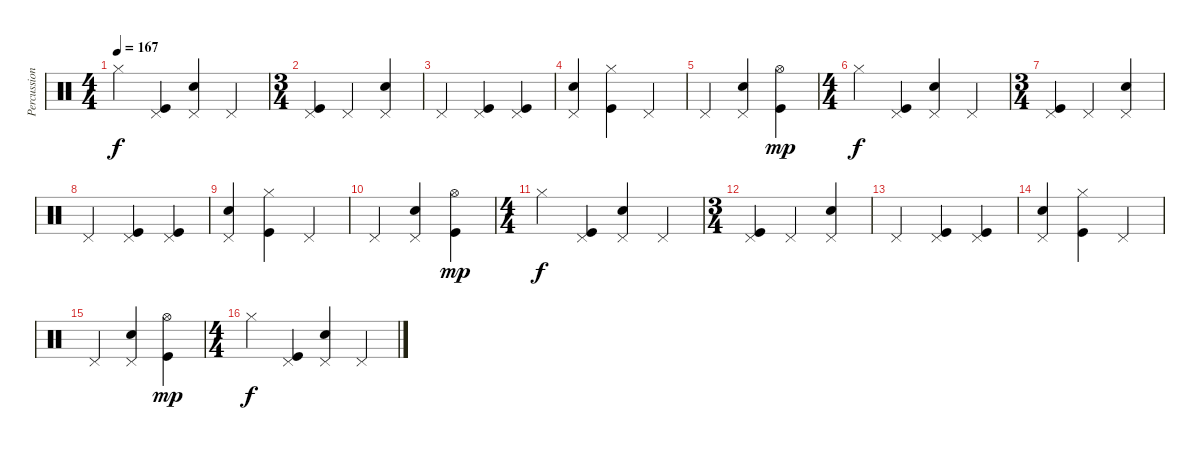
\track ("Percussion" "Percussion") {instrument percussion}
\staff {score}
\articulation defaults
\ts (4 4)
\tempo 167
\clef neutral
\ks c "Hi-Hat (closed)".4{dy f}
("Pedal Hi-Hat (hit)" "Kick (hit)").4 ("Pedal Hi-Hat (hit)" "Snare (hit) 2").4 "Pedal Hi-Hat (hit)".4 |
\ts (3 4)
("Pedal Hi-Hat (hit)" "Kick (hit)").4 "Pedal Hi-Hat (hit)".4 ("Pedal Hi-Hat (hit)" "Snare (hit) 2").4 |
"Pedal Hi-Hat (hit)".4 ("Pedal Hi-Hat (hit)" "Kick (hit)").4 ("Pedal Hi-Hat (hit)" "Kick (hit)").4 |
("Pedal Hi-Hat (hit)" "Snare (hit) 2").4 ("Hi-Hat (closed)" "Kick (hit)").4 "Pedal Hi-Hat (hit)".4 |
"Pedal Hi-Hat (hit)".4 ("Pedal Hi-Hat (hit)" "Snare (hit) 2").4 ("Hi-Hat (open)" "Kick (hit)").4{dy mp} |
\ts (4 4)
"Hi-Hat (closed)".4{dy f} ("Pedal Hi-Hat (hit)" "Kick (hit)").4 ("Pedal Hi-Hat (hit)" "Snare (hit) 2").4 "Pedal Hi-Hat (hit)".4 |
\ts (3 4)
("Pedal Hi-Hat (hit)" "Kick (hit)").4 "Pedal Hi-Hat (hit)".4 ("Pedal Hi-Hat (hit)" "Snare (hit) 2").4 |
"Pedal Hi-Hat (hit)".4 ("Pedal Hi-Hat (hit)" "Kick (hit)").4 ("Pedal Hi-Hat (hit)" "Kick (hit)").4 |
("Pedal Hi-Hat (hit)" "Snare (hit) 2").4 ("Hi-Hat (closed)" "Kick (hit)").4 "Pedal Hi-Hat (hit)".4 |
"Pedal Hi-Hat (hit)".4 ("Pedal Hi-Hat (hit)" "Snare (hit) 2").4 ("Hi-Hat (open)" "Kick (hit)").4{dy mp} |
\ts (4 4)
"Hi-Hat (closed)".4{dy f} ("Pedal Hi-Hat (hit)" "Kick (hit)").4 ("Pedal Hi-Hat (hit)" "Snare (hit) 2").4 "Pedal Hi-Hat (hit)".4 |
\ts (3 4)
("Pedal Hi-Hat (hit)" "Kick (hit)").4 "Pedal Hi-Hat (hit)".4 ("Pedal Hi-Hat (hit)" "Snare (hit) 2").4 |
"Pedal Hi-Hat (hit)".4 ("Pedal Hi-Hat (hit)" "Kick (hit)").4 ("Pedal Hi-Hat (hit)" "Kick (hit)").4 |
("Pedal Hi-Hat (hit)" "Snare (hit) 2").4 ("Hi-Hat (closed)" "Kick (hit)").4 "Pedal Hi-Hat (hit)".4 |
"Pedal Hi-Hat (hit)".4 ("Pedal Hi-Hat (hit)" "Snare (hit) 2").4 ("Hi-Hat (open)" "Kick (hit)").4{dy mp} |
\ts (4 4)
"Hi-Hat (closed)".4{dy f} ("Pedal Hi-Hat (hit)" "Kick (hit)").4 ("Pedal Hi-Hat (hit)" "Snare (hit) 2").4 "Pedal Hi-Hat (hit)".4
